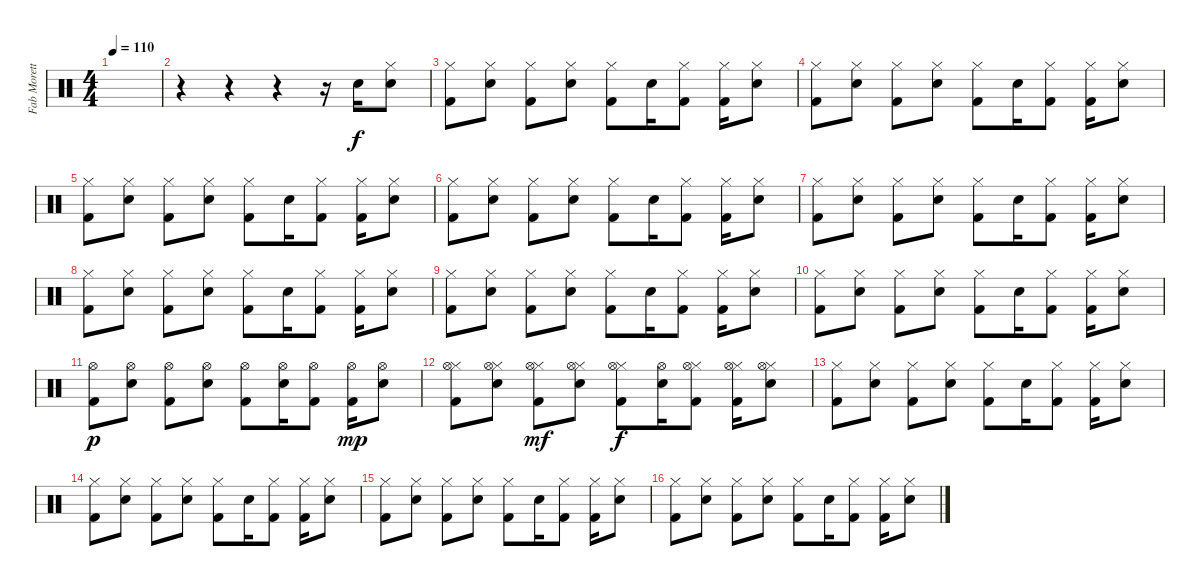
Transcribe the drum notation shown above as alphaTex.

\track ("Fab Moretti" "Fab Morett") {instrument percussion}
\staff {score}
\articulation defaults
\ts (4 4)
\tempo 110
\clef neutral
\ks c
|
r.4 r.4 r.4 r.16 "Electric Snare (hit)".16 ("Electric Snare (hit)" "Hi-Hat (closed)").8 |
("Kick (hit) 2" "Hi-Hat (closed)").8 ("Electric Snare (hit)" "Hi-Hat (closed)").8 ("Kick (hit) 2" "Hi-Hat (closed)").8 ("Electric Snare (hit)" "Hi-Hat (closed)").8 ("Kick (hit) 2" "Hi-Hat (closed)").8 "Electric Snare (hit)".16 ("Kick (hit) 2" "Hi-Hat (closed)").8 ("Kick (hit) 2" "Hi-Hat (closed)").16 ("Electric Snare (hit)" "Hi-Hat (closed)").8 |
("Kick (hit) 2" "Hi-Hat (closed)").8 ("Electric Snare (hit)" "Hi-Hat (closed)").8 ("Kick (hit) 2" "Hi-Hat (closed)").8 ("Electric Snare (hit)" "Hi-Hat (closed)").8 ("Kick (hit) 2" "Hi-Hat (closed)").8 "Electric Snare (hit)".16 ("Kick (hit) 2" "Hi-Hat (closed)").8 ("Kick (hit) 2" "Hi-Hat (closed)").16 ("Electric Snare (hit)" "Hi-Hat (closed)").8 |
("Kick (hit) 2" "Hi-Hat (closed)").8 ("Electric Snare (hit)" "Hi-Hat (closed)").8 ("Kick (hit) 2" "Hi-Hat (closed)").8 ("Electric Snare (hit)" "Hi-Hat (closed)").8 ("Kick (hit) 2" "Hi-Hat (closed)").8 "Electric Snare (hit)".16 ("Kick (hit) 2" "Hi-Hat (closed)").8 ("Kick (hit) 2" "Hi-Hat (closed)").16 ("Electric Snare (hit)" "Hi-Hat (closed)").8 |
("Kick (hit) 2" "Hi-Hat (closed)").8 ("Electric Snare (hit)" "Hi-Hat (closed)").8 ("Kick (hit) 2" "Hi-Hat (closed)").8 ("Electric Snare (hit)" "Hi-Hat (closed)").8 ("Kick (hit) 2" "Hi-Hat (closed)").8 "Electric Snare (hit)".16 ("Kick (hit) 2" "Hi-Hat (closed)").8 ("Kick (hit) 2" "Hi-Hat (closed)").16 ("Electric Snare (hit)" "Hi-Hat (closed)").8 |
("Kick (hit) 2" "Hi-Hat (closed)").8 ("Electric Snare (hit)" "Hi-Hat (closed)").8 ("Kick (hit) 2" "Hi-Hat (closed)").8 ("Electric Snare (hit)" "Hi-Hat (closed)").8 ("Kick (hit) 2" "Hi-Hat (closed)").8 "Electric Snare (hit)".16 ("Kick (hit) 2" "Hi-Hat (closed)").8 ("Kick (hit) 2" "Hi-Hat (closed)").16 ("Electric Snare (hit)" "Hi-Hat (closed)").8 |
("Kick (hit) 2" "Hi-Hat (closed)").8 ("Electric Snare (hit)" "Hi-Hat (closed)").8 ("Kick (hit) 2" "Hi-Hat (closed)").8 ("Electric Snare (hit)" "Hi-Hat (closed)").8 ("Kick (hit) 2" "Hi-Hat (closed)").8 "Electric Snare (hit)".16 ("Kick (hit) 2" "Hi-Hat (closed)").8 ("Kick (hit) 2" "Hi-Hat (closed)").16 ("Electric Snare (hit)" "Hi-Hat (closed)").8 |
("Kick (hit) 2" "Hi-Hat (closed)").8 ("Electric Snare (hit)" "Hi-Hat (closed)").8 ("Kick (hit) 2" "Hi-Hat (closed)").8 ("Electric Snare (hit)" "Hi-Hat (closed)").8 ("Kick (hit) 2" "Hi-Hat (closed)").8 "Electric Snare (hit)".16 ("Kick (hit) 2" "Hi-Hat (closed)").8 ("Kick (hit) 2" "Hi-Hat (closed)").16 ("Electric Snare (hit)" "Hi-Hat (closed)").8 |
("Kick (hit) 2" "Hi-Hat (closed)").8 ("Electric Snare (hit)" "Hi-Hat (closed)").8 ("Kick (hit) 2" "Hi-Hat (closed)").8 ("Electric Snare (hit)" "Hi-Hat (closed)").8 ("Kick (hit) 2" "Hi-Hat (closed)").8 "Electric Snare (hit)".16 ("Kick (hit) 2" "Hi-Hat (closed)").8 ("Kick (hit) 2" "Hi-Hat (closed)").16 ("Electric Snare (hit)" "Hi-Hat (closed)").8 |
("Kick (hit) 2" "Hi-Hat (open)").8{dy p} ("Electric Snare (hit)" "Hi-Hat (open)").8 ("Kick (hit) 2" "Hi-Hat (open)").8 ("Electric Snare (hit)" "Hi-Hat (open)").8 ("Kick (hit) 2" "Hi-Hat (open)").8 ("Electric Snare (hit)" "Hi-Hat (open)").16 ("Kick (hit) 2" "Hi-Hat (open)").8 ("Kick (hit) 2" "Hi-Hat (open)").16{dy mp} ("Electric Snare (hit)" "Hi-Hat (open)").8 |
("Kick (hit) 2" "Hi-Hat (closed)" "Hi-Hat (open)").8 ("Electric Snare (hit)" "Hi-Hat (closed)" "Hi-Hat (open)").8 ("Kick (hit) 2" "Hi-Hat (closed)" "Hi-Hat (open)").8{dy mf} ("Electric Snare (hit)" "Hi-Hat (closed)" "Hi-Hat (open)").8 ("Kick (hit) 2" "Hi-Hat (closed)" "Hi-Hat (open)").8{dy f} ("Electric Snare (hit)" "Hi-Hat (open)").16 ("Kick (hit) 2" "Hi-Hat (closed)" "Hi-Hat (open)").8 ("Kick (hit) 2" "Hi-Hat (closed)" "Hi-Hat (open)").16 ("Electric Snare (hit)" "Hi-Hat (closed)" "Hi-Hat (open)").8 |
("Kick (hit) 2" "Hi-Hat (closed)").8 ("Electric Snare (hit)" "Hi-Hat (closed)").8 ("Kick (hit) 2" "Hi-Hat (closed)").8 ("Electric Snare (hit)" "Hi-Hat (closed)").8 ("Kick (hit) 2" "Hi-Hat (closed)").8 "Electric Snare (hit)".16 ("Kick (hit) 2" "Hi-Hat (closed)").8 ("Kick (hit) 2" "Hi-Hat (closed)").16 ("Electric Snare (hit)" "Hi-Hat (closed)").8 |
("Kick (hit) 2" "Hi-Hat (closed)").8 ("Electric Snare (hit)" "Hi-Hat (closed)").8 ("Kick (hit) 2" "Hi-Hat (closed)").8 ("Electric Snare (hit)" "Hi-Hat (closed)").8 ("Kick (hit) 2" "Hi-Hat (closed)").8 "Electric Snare (hit)".16 ("Kick (hit) 2" "Hi-Hat (closed)").8 ("Kick (hit) 2" "Hi-Hat (closed)").16 ("Electric Snare (hit)" "Hi-Hat (closed)").8 |
("Kick (hit) 2" "Hi-Hat (closed)").8 ("Electric Snare (hit)" "Hi-Hat (closed)").8 ("Kick (hit) 2" "Hi-Hat (closed)").8 ("Electric Snare (hit)" "Hi-Hat (closed)").8 ("Kick (hit) 2" "Hi-Hat (closed)").8 "Electric Snare (hit)".16 ("Kick (hit) 2" "Hi-Hat (closed)").8 ("Kick (hit) 2" "Hi-Hat (closed)").16 ("Electric Snare (hit)" "Hi-Hat (closed)").8 |
("Kick (hit) 2" "Hi-Hat (closed)").8 ("Electric Snare (hit)" "Hi-Hat (closed)").8 ("Kick (hit) 2" "Hi-Hat (closed)").8 ("Electric Snare (hit)" "Hi-Hat (closed)").8 ("Kick (hit) 2" "Hi-Hat (closed)").8 "Electric Snare (hit)".16 ("Kick (hit) 2" "Hi-Hat (closed)").8 ("Kick (hit) 2" "Hi-Hat (closed)").16 ("Electric Snare (hit)" "Hi-Hat (closed)").8
